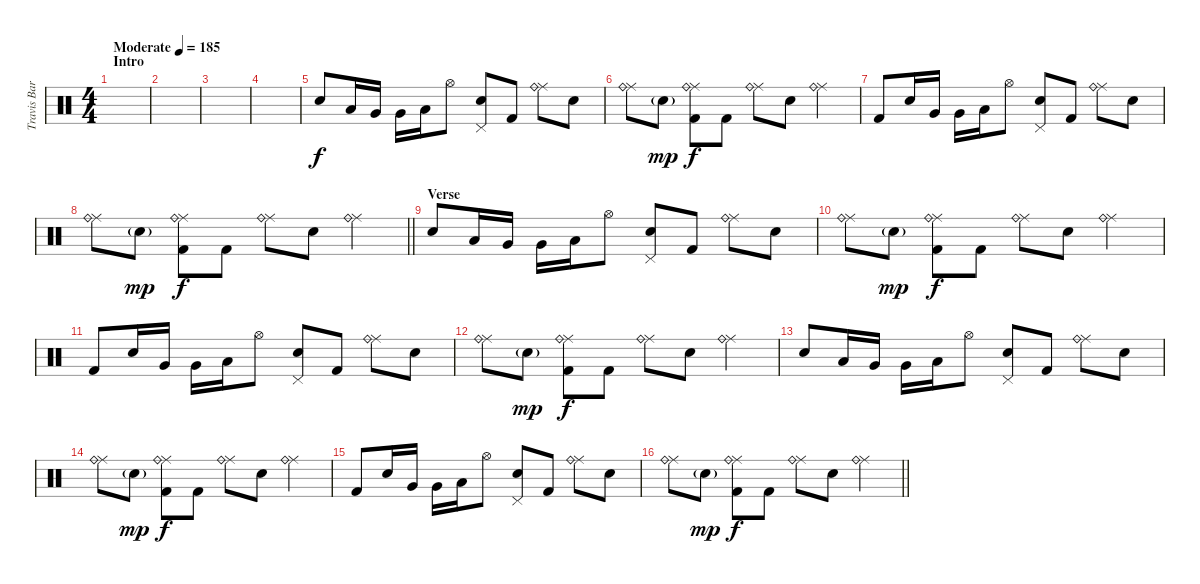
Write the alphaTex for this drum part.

\track ("Travis Barker - Drums" "Travis Bar") {instrument percussion}
\staff {score}
\articulation defaults
\ts (4 4)
\section ("" "Intro")
\tempo (185 "Moderate")
\clef neutral
\ks c
|
|
|
|
"Electric Snare (hit)".8 "Low Tom (hit)".16 "Very Low Tom (hit)".16 "Very Low Tom (hit)".16 "Low Floor Tom (hit)".16 "Hi-Hat (open)".8 ("Pedal Hi-Hat (hit)" "Electric Snare (hit)").8 "Kick (hit) 2".8 ("Ride (middle)" "Ride (bell)").8 "Electric Snare (hit)".8 |
("Ride (middle)" "Ride (bell)").8 "Electric Snare (hit)"{g}.8{dy mp} ("Ride (middle)" "Ride (bell)" "Kick (hit) 2").8{dy f} "Kick (hit) 2".8 ("Ride (middle)" "Ride (bell)").8 "Electric Snare (hit)".8 ("Ride (middle)" "Ride (bell)").4 |
"Kick (hit) 2".8 "Electric Snare (hit)".16 "Very Low Tom (hit)".16 "Very Low Tom (hit)".16 "Low Floor Tom (hit)".16 "Hi-Hat (open)".8 ("Pedal Hi-Hat (hit)" "Electric Snare (hit)").8 "Kick (hit) 2".8 ("Ride (middle)" "Ride (bell)").8 "Electric Snare (hit)".8 |
\barLineRight lightlight
("Ride (middle)" "Ride (bell)").8 "Electric Snare (hit)"{g}.8{dy mp} ("Ride (middle)" "Ride (bell)" "Kick (hit) 2").8{dy f} "Kick (hit) 2".8 ("Ride (middle)" "Ride (bell)").8 "Electric Snare (hit)".8 ("Ride (middle)" "Ride (bell)").4 |
\section ("" "Verse")
"Electric Snare (hit)".8 "Low Tom (hit)".16 "Very Low Tom (hit)".16 "Very Low Tom (hit)".16 "Low Floor Tom (hit)".16 "Hi-Hat (open)".8 ("Pedal Hi-Hat (hit)" "Electric Snare (hit)").8 "Kick (hit) 2".8 ("Ride (middle)" "Ride (bell)").8 "Electric Snare (hit)".8 |
("Ride (middle)" "Ride (bell)").8 "Electric Snare (hit)"{g}.8{dy mp} ("Ride (middle)" "Ride (bell)" "Kick (hit) 2").8{dy f} "Kick (hit) 2".8 ("Ride (middle)" "Ride (bell)").8 "Electric Snare (hit)".8 ("Ride (middle)" "Ride (bell)").4 |
"Kick (hit) 2".8 "Electric Snare (hit)".16 "Very Low Tom (hit)".16 "Very Low Tom (hit)".16 "Low Floor Tom (hit)".16 "Hi-Hat (open)".8 ("Pedal Hi-Hat (hit)" "Electric Snare (hit)").8 "Kick (hit) 2".8 ("Ride (middle)" "Ride (bell)").8 "Electric Snare (hit)".8 |
("Ride (middle)" "Ride (bell)").8 "Electric Snare (hit)"{g}.8{dy mp} ("Ride (middle)" "Ride (bell)" "Kick (hit) 2").8{dy f} "Kick (hit) 2".8 ("Ride (middle)" "Ride (bell)").8 "Electric Snare (hit)".8 ("Ride (middle)" "Ride (bell)").4 |
"Electric Snare (hit)".8 "Low Tom (hit)".16 "Very Low Tom (hit)".16 "Very Low Tom (hit)".16 "Low Floor Tom (hit)".16 "Hi-Hat (open)".8 ("Pedal Hi-Hat (hit)" "Electric Snare (hit)").8 "Kick (hit) 2".8 ("Ride (middle)" "Ride (bell)").8 "Electric Snare (hit)".8 |
("Ride (middle)" "Ride (bell)").8 "Electric Snare (hit)"{g}.8{dy mp} ("Ride (middle)" "Ride (bell)" "Kick (hit) 2").8{dy f} "Kick (hit) 2".8 ("Ride (middle)" "Ride (bell)").8 "Electric Snare (hit)".8 ("Ride (middle)" "Ride (bell)").4 |
"Kick (hit) 2".8 "Electric Snare (hit)".16 "Very Low Tom (hit)".16 "Very Low Tom (hit)".16 "Low Floor Tom (hit)".16 "Hi-Hat (open)".8 ("Pedal Hi-Hat (hit)" "Electric Snare (hit)").8 "Kick (hit) 2".8 ("Ride (middle)" "Ride (bell)").8 "Electric Snare (hit)".8 |
\barLineRight lightlight
("Ride (middle)" "Ride (bell)").8 "Electric Snare (hit)"{g}.8{dy mp} ("Ride (middle)" "Ride (bell)" "Kick (hit) 2").8{dy f} "Kick (hit) 2".8 ("Ride (middle)" "Ride (bell)").8 "Electric Snare (hit)".8 ("Ride (middle)" "Ride (bell)").4
